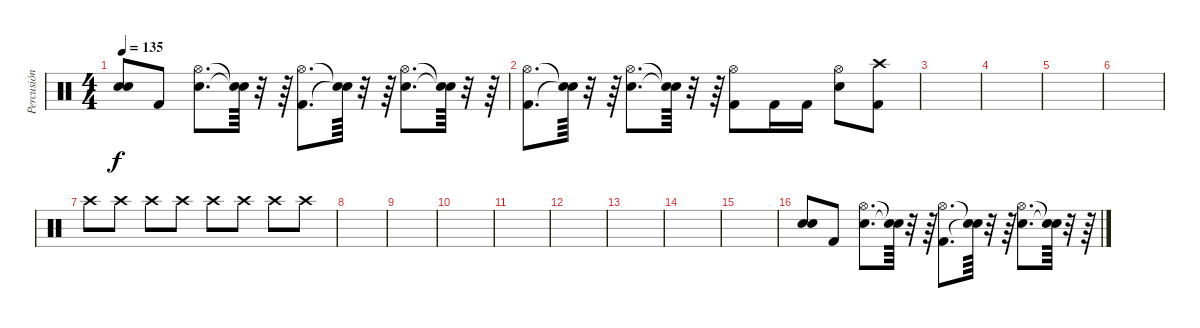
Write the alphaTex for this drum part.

\track ("Percusión" "Percusión") {instrument percussion}
\staff {score}
\articulation defaults
\ts (4 4)
\tempo 135
\clef neutral
\ks c
("Snare (hit)"{t} "Snare (hit)"{t}).8{dy f} "Kick (hit) 2".8 ("Snare (hit) 2" "Hi-Hat (open)").8{d} ("Snare (hit)"{t} "Snare (hit)"{t}).64 r.32 r.64 ("Kick (hit) 2" "Hi-Hat (open)").8{d} ("Snare (hit)"{t} "Snare (hit)"{t}).64 r.32 r.64 ("Snare (hit) 2" "Hi-Hat (open)").8{d} ("Snare (hit)"{t} "Snare (hit)"{t}).64 r.32 r.64 |
("Kick (hit) 2" "Hi-Hat (open)").8{d} ("Snare (hit)"{t} "Snare (hit)"{t}).64 r.32 r.64 ("Snare (hit) 2" "Hi-Hat (open)").8{d} ("Snare (hit)"{t} "Snare (hit)"{t}).64 r.32 r.64 ("Kick (hit) 2" "Hi-Hat (open)").8 "Kick (hit) 2".16 "Kick (hit) 2".16 ("Snare (hit) 2" "Hi-Hat (open)").8 ("Kick (hit) 2" "Crash high (hit)").8 |
|
|
|
|
"Crash high (hit)".8 "Crash high (hit)".8 "Crash high (hit)".8 "Crash high (hit)".8 "Crash high (hit)".8 "Crash high (hit)".8 "Crash high (hit)".8 "Crash high (hit)".8 |
|
|
|
|
|
|
|
|
("Snare (hit)" "Snare (hit)").8 "Kick (hit) 2".8 ("Snare (hit) 2" "Hi-Hat (open)").8{d} ("Snare (hit)"{t} "Snare (hit)"{t}).64 r.32 r.64 ("Kick (hit) 2" "Hi-Hat (open)").8{d} ("Snare (hit)"{t} "Snare (hit)"{t}).64 r.32 r.64 ("Snare (hit) 2" "Hi-Hat (open)").8{d} ("Snare (hit)"{t} "Snare (hit)"{t}).64 r.32 r.64
